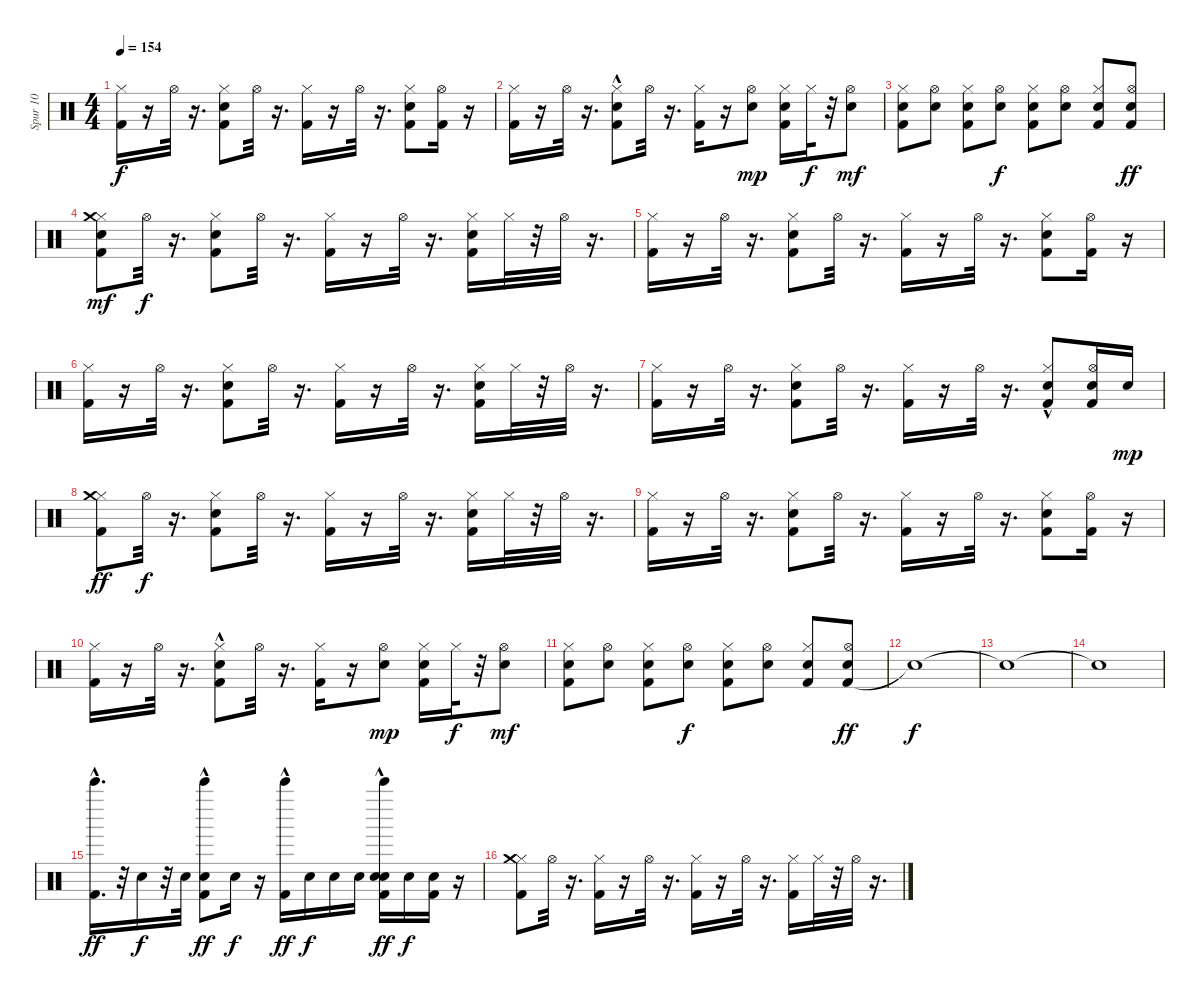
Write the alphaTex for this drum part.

\track ("Spur 10" "Spur 10") {instrument percussion}
\staff {score}
\articulation defaults
\ts (4 4)
\tempo 154
\clef neutral
\ks c
("Kick (hit) 2" "Hi-Hat (closed)").16{dy f} r.16 "Hi-Hat (open)".32 r.16{d} ("Kick (hit) 2" "Snare (hit) 2" "Hi-Hat (closed)").8 "Hi-Hat (open)".32 r.16{d} ("Kick (hit) 2" "Hi-Hat (closed)").16 r.16 "Hi-Hat (open)".32 r.16{d} ("Kick (hit) 2" "Snare (hit) 2" "Hi-Hat (closed)").8 ("Kick (hit) 2" "Hi-Hat (open)").16 r.16 |
("Kick (hit) 2" "Hi-Hat (closed)").16 r.16 "Hi-Hat (open)".32 r.16{d} ("Kick (hit) 2" "Snare (hit) 2"{hac} "Hi-Hat (closed)").8 "Hi-Hat (open)".32 r.16{d} ("Kick (hit) 2" "Hi-Hat (closed)").16 r.16 ("Snare (hit) 2" "Hi-Hat (open)").8{dy mp} ("Kick (hit) 2" "Snare (hit) 2" "Hi-Hat (closed)").16 "Hi-Hat (closed)".32{dy f} r.32 ("Snare (hit) 2" "Hi-Hat (open)").8{dy mf} |
("Kick (hit) 2" "Snare (hit) 2" "Hi-Hat (closed)").8 ("Snare (hit) 2" "Hi-Hat (open)").8 ("Kick (hit) 2" "Snare (hit) 2" "Hi-Hat (closed)").8 ("Snare (hit) 2" "Hi-Hat (open)").8{dy f} ("Kick (hit) 2" "Snare (hit) 2" "Hi-Hat (closed)").8 ("Snare (hit) 2" "Hi-Hat (open)").8 ("Kick (hit) 2" "Snare (hit) 2" "Hi-Hat (closed)").8 ("Kick (hit) 2" "Snare (hit) 2" "Hi-Hat (open)").8{dy ff} |
("Kick (hit) 2" "Snare (hit) 2" "Hi-Hat (closed)" "Crash medium (hit)").8{dy mf} "Hi-Hat (open)".32{dy f} r.16{d} ("Kick (hit) 2" "Snare (hit) 2" "Hi-Hat (closed)").8 "Hi-Hat (open)".32 r.16{d} ("Kick (hit) 2" "Hi-Hat (closed)").16 r.16 "Hi-Hat (open)".32 r.16{d} ("Kick (hit) 2" "Snare (hit) 2" "Hi-Hat (closed)").16 "Hi-Hat (closed)".32 r.32 "Hi-Hat (open)".32 r.16{d} |
("Kick (hit) 2" "Hi-Hat (closed)").16 r.16 "Hi-Hat (open)".32 r.16{d} ("Kick (hit) 2" "Snare (hit) 2" "Hi-Hat (closed)").8 "Hi-Hat (open)".32 r.16{d} ("Kick (hit) 2" "Hi-Hat (closed)").16 r.16 "Hi-Hat (open)".32 r.16{d} ("Kick (hit) 2" "Snare (hit) 2" "Hi-Hat (closed)").8 ("Kick (hit) 2" "Hi-Hat (open)").16 r.16 |
("Kick (hit) 2" "Hi-Hat (closed)").16 r.16 "Hi-Hat (open)".32 r.16{d} ("Kick (hit) 2" "Snare (hit) 2" "Hi-Hat (closed)").8 "Hi-Hat (open)".32 r.16{d} ("Kick (hit) 2" "Hi-Hat (closed)").16 r.16 "Hi-Hat (open)".32 r.16{d} ("Kick (hit) 2" "Snare (hit) 2" "Hi-Hat (closed)").16 "Hi-Hat (closed)".32 r.32 "Hi-Hat (open)".32 r.16{d} |
("Kick (hit) 2" "Hi-Hat (closed)").16 r.16 "Hi-Hat (open)".32 r.16{d} ("Kick (hit) 2" "Snare (hit) 2" "Hi-Hat (closed)").8 "Hi-Hat (open)".32 r.16{d} ("Kick (hit) 2" "Hi-Hat (closed)").16 r.16 "Hi-Hat (open)".32 r.16{d} ("Kick (hit) 2" "Snare (hit) 2"{hac} "Hi-Hat (closed)").8 ("Electric Snare (hit)" "Kick (hit) 2" "Hi-Hat (open)").16 "Snare (hit) 2".16{dy mp} |
("Kick (hit) 2" "Hi-Hat (closed)" "Crash medium (hit)").8{dy ff} "Hi-Hat (open)".32{dy f} r.16{d} ("Kick (hit) 2" "Snare (hit) 2" "Hi-Hat (closed)").8 "Hi-Hat (open)".32 r.16{d} ("Kick (hit) 2" "Hi-Hat (closed)").16 r.16 "Hi-Hat (open)".32 r.16{d} ("Kick (hit) 2" "Snare (hit) 2" "Hi-Hat (closed)").16 "Hi-Hat (closed)".32 r.32 "Hi-Hat (open)".32 r.16{d} |
("Kick (hit) 2" "Hi-Hat (closed)").16 r.16 "Hi-Hat (open)".32 r.16{d} ("Kick (hit) 2" "Snare (hit) 2" "Hi-Hat (closed)").8 "Hi-Hat (open)".32 r.16{d} ("Kick (hit) 2" "Hi-Hat (closed)").16 r.16 "Hi-Hat (open)".32 r.16{d} ("Kick (hit) 2" "Snare (hit) 2" "Hi-Hat (closed)").8 ("Kick (hit) 2" "Hi-Hat (open)").16 r.16 |
("Kick (hit) 2" "Hi-Hat (closed)").16 r.16 "Hi-Hat (open)".32 r.16{d} ("Kick (hit) 2" "Snare (hit) 2"{hac} "Hi-Hat (closed)").8 "Hi-Hat (open)".32 r.16{d} ("Kick (hit) 2" "Hi-Hat (closed)").16 r.16 ("Snare (hit) 2" "Hi-Hat (open)").8{dy mp} ("Kick (hit) 2" "Snare (hit) 2" "Hi-Hat (closed)").16 "Hi-Hat (closed)".32{dy f} r.32 ("Snare (hit) 2" "Hi-Hat (open)").8{dy mf} |
("Kick (hit) 2" "Snare (hit) 2" "Hi-Hat (closed)").8 ("Snare (hit) 2" "Hi-Hat (open)").8 ("Kick (hit) 2" "Snare (hit) 2" "Hi-Hat (closed)").8 ("Snare (hit) 2" "Hi-Hat (open)").8{dy f} ("Kick (hit) 2" "Snare (hit) 2" "Hi-Hat (closed)").8 ("Snare (hit) 2" "Hi-Hat (open)").8 ("Kick (hit) 2" "Snare (hit) 2" "Hi-Hat (closed)").8 ("Kick (hit) 2" "Snare (hit) 2" "Hi-Hat (open)").8{dy ff} |
"Snare (hit)"{t}.1{dy f} |
"Snare (hit)"{t}.1 |
"Snare (hit)"{t}.1 |
("Kick (hit) 2" "Bell Tree (hit)"{hac}).16{d dy ff} r.32 "Electric Snare (hit)".16{dy f} r.32 "Electric Snare (hit)".32 ("Kick (hit) 2" "Snare (hit) 2" "Bell Tree (hit)"{hac}).8{dy ff} "Electric Snare (hit)".16{dy f} r.16 ("Kick (hit) 2" "Bell Tree (hit)"{hac}).16{dy ff} "Snare (hit) 2".16{dy f} "Electric Snare (hit)".16 "Snare (hit) 2".16 ("Electric Snare (hit)" "Kick (hit) 2" "Snare (hit) 2" "Bell Tree (hit)"{hac}).16{dy ff} "Snare (hit) 2".16{dy f} ("Electric Snare (hit)" "Kick (hit) 2").16 r.16 |
("Kick (hit) 2" "Hi-Hat (closed)" "Crash medium (hit)").8 "Hi-Hat (open)".32 r.16{d} ("Kick (hit) 2" "Hi-Hat (closed)").16 r.16 "Hi-Hat (open)".32 r.16{d} ("Kick (hit) 2" "Hi-Hat (closed)").16 r.16 "Hi-Hat (open)".32 r.16{d} ("Kick (hit) 2" "Hi-Hat (closed)").16 "Hi-Hat (closed)".32 r.32 "Hi-Hat (open)".32 r.16{d}
